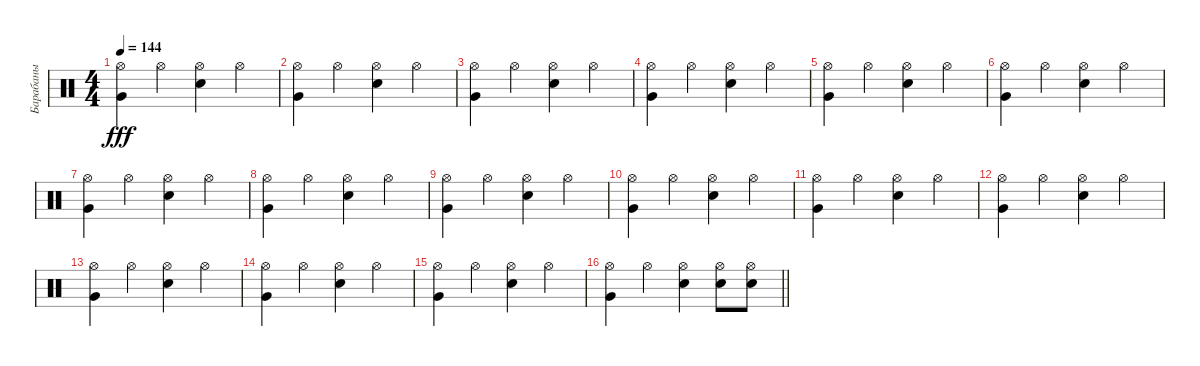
\track ("Барабаны" "Барабаны") {instrument percussion}
\staff {score}
\articulation defaults
\ts (4 4)
\tempo 144
\clef neutral
\ks c
("Hi-Hat (open)" "Very Low Tom (hit)").4{dy fff} "Hi-Hat (open)".4 ("Hi-Hat (open)" "Snare (hit) 2").4 "Hi-Hat (open)".4 |
("Hi-Hat (open)" "Very Low Tom (hit)").4 "Hi-Hat (open)".4 ("Hi-Hat (open)" "Snare (hit) 2").4 "Hi-Hat (open)".4 |
("Hi-Hat (open)" "Very Low Tom (hit)").4 "Hi-Hat (open)".4 ("Hi-Hat (open)" "Snare (hit) 2").4 "Hi-Hat (open)".4 |
("Hi-Hat (open)" "Very Low Tom (hit)").4 "Hi-Hat (open)".4 ("Hi-Hat (open)" "Snare (hit) 2").4 "Hi-Hat (open)".4 |
("Hi-Hat (open)" "Very Low Tom (hit)").4 "Hi-Hat (open)".4 ("Hi-Hat (open)" "Snare (hit) 2").4 "Hi-Hat (open)".4 |
("Hi-Hat (open)" "Very Low Tom (hit)").4 "Hi-Hat (open)".4 ("Hi-Hat (open)" "Snare (hit) 2").4 "Hi-Hat (open)".4 |
("Hi-Hat (open)" "Very Low Tom (hit)").4 "Hi-Hat (open)".4 ("Hi-Hat (open)" "Snare (hit) 2").4 "Hi-Hat (open)".4 |
("Hi-Hat (open)" "Very Low Tom (hit)").4 "Hi-Hat (open)".4 ("Hi-Hat (open)" "Snare (hit) 2").4 "Hi-Hat (open)".4 |
("Hi-Hat (open)" "Very Low Tom (hit)").4 "Hi-Hat (open)".4 ("Hi-Hat (open)" "Snare (hit) 2").4 "Hi-Hat (open)".4 |
("Hi-Hat (open)" "Very Low Tom (hit)").4 "Hi-Hat (open)".4 ("Hi-Hat (open)" "Snare (hit) 2").4 "Hi-Hat (open)".4 |
("Hi-Hat (open)" "Very Low Tom (hit)").4 "Hi-Hat (open)".4 ("Hi-Hat (open)" "Snare (hit) 2").4 "Hi-Hat (open)".4 |
("Hi-Hat (open)" "Very Low Tom (hit)").4 "Hi-Hat (open)".4 ("Hi-Hat (open)" "Snare (hit) 2").4 "Hi-Hat (open)".4 |
("Hi-Hat (open)" "Very Low Tom (hit)").4 "Hi-Hat (open)".4 ("Hi-Hat (open)" "Snare (hit) 2").4 "Hi-Hat (open)".4 |
("Hi-Hat (open)" "Very Low Tom (hit)").4 "Hi-Hat (open)".4 ("Hi-Hat (open)" "Snare (hit) 2").4 "Hi-Hat (open)".4 |
("Hi-Hat (open)" "Very Low Tom (hit)").4 "Hi-Hat (open)".4 ("Hi-Hat (open)" "Snare (hit) 2").4 "Hi-Hat (open)".4 |
\barLineRight lightlight
("Hi-Hat (open)" "Very Low Tom (hit)").4 "Hi-Hat (open)".4 ("Hi-Hat (open)" "Snare (hit) 2").4 ("Hi-Hat (open)" "Electric Snare (hit)").8 ("Electric Snare (hit)" "Hi-Hat (open)").8
